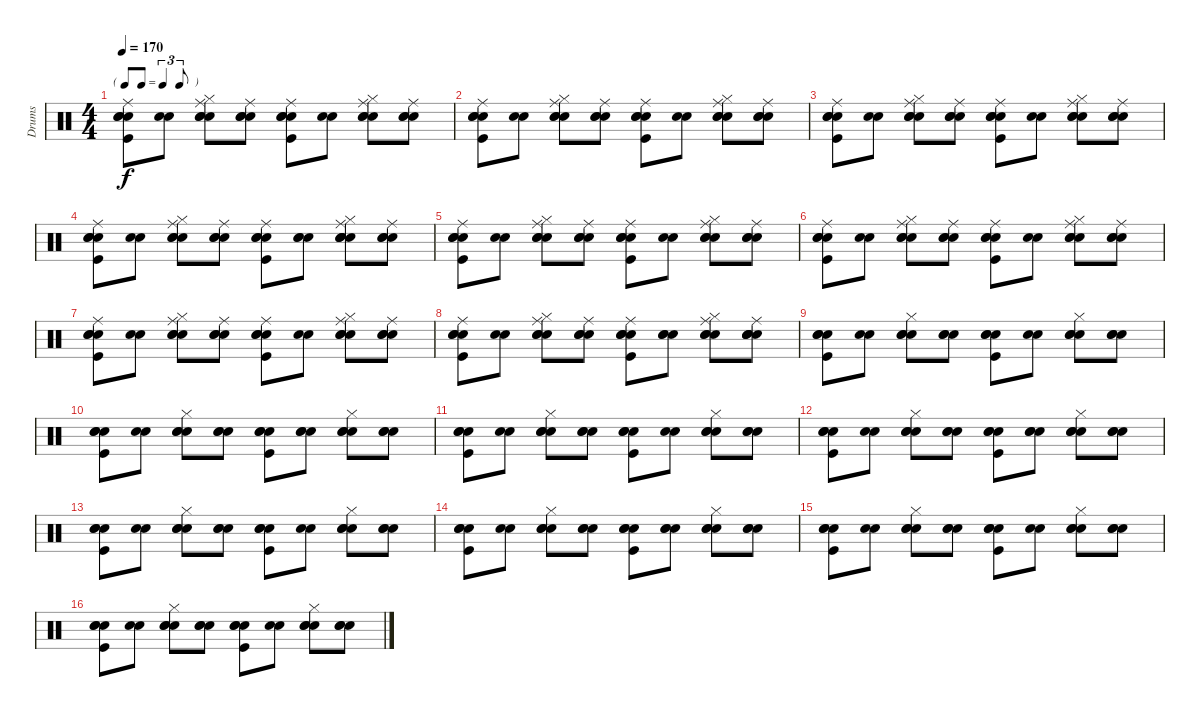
\track ("Drums" "Drums") {instrument percussion}
\staff {score}
\articulation defaults
\ts (4 4)
\tf triplet8th
\tempo 170
\clef neutral
\ks c
("Snare (hit)" "Kick (hit)" "Snare (hit) 2" "Electric Snare (hit)" "Ride (middle)").8{dy f} ("Snare (hit)" "Electric Snare (hit)").8 ("Snare (hit)" "Snare (hit) 2" "Hi-Hat (closed)" "Electric Snare (hit)" "Ride (middle)").8 ("Snare (hit)" "Snare (hit) 2" "Electric Snare (hit)" "Ride (middle)").8 ("Snare (hit)" "Kick (hit)" "Snare (hit) 2" "Electric Snare (hit)" "Ride (middle)").8 ("Snare (hit)" "Electric Snare (hit)").8 ("Snare (hit)" "Snare (hit) 2" "Hi-Hat (closed)" "Electric Snare (hit)" "Ride (middle)").8 ("Snare (hit)" "Snare (hit) 2" "Electric Snare (hit)" "Ride (middle)").8 |
("Snare (hit)" "Kick (hit)" "Snare (hit) 2" "Electric Snare (hit)" "Ride (middle)").8 ("Snare (hit)" "Electric Snare (hit)").8 ("Snare (hit)" "Snare (hit) 2" "Hi-Hat (closed)" "Electric Snare (hit)" "Ride (middle)").8 ("Snare (hit)" "Snare (hit) 2" "Electric Snare (hit)" "Ride (middle)").8 ("Snare (hit)" "Kick (hit)" "Snare (hit) 2" "Electric Snare (hit)" "Ride (middle)").8 ("Snare (hit)" "Electric Snare (hit)").8 ("Snare (hit)" "Snare (hit) 2" "Hi-Hat (closed)" "Electric Snare (hit)" "Ride (middle)").8 ("Snare (hit)" "Snare (hit) 2" "Electric Snare (hit)" "Ride (middle)").8 |
("Snare (hit)" "Kick (hit)" "Snare (hit) 2" "Electric Snare (hit)" "Ride (middle)").8 ("Snare (hit)" "Electric Snare (hit)").8 ("Snare (hit)" "Snare (hit) 2" "Hi-Hat (closed)" "Electric Snare (hit)" "Ride (middle)").8 ("Snare (hit)" "Snare (hit) 2" "Electric Snare (hit)" "Ride (middle)").8 ("Snare (hit)" "Kick (hit)" "Snare (hit) 2" "Electric Snare (hit)" "Ride (middle)").8 ("Snare (hit)" "Electric Snare (hit)").8 ("Snare (hit)" "Snare (hit) 2" "Hi-Hat (closed)" "Electric Snare (hit)" "Ride (middle)").8 ("Snare (hit)" "Snare (hit) 2" "Electric Snare (hit)" "Ride (middle)").8 |
("Snare (hit)" "Kick (hit)" "Snare (hit) 2" "Electric Snare (hit)" "Ride (middle)").8 ("Snare (hit)" "Electric Snare (hit)").8 ("Snare (hit)" "Snare (hit) 2" "Hi-Hat (closed)" "Electric Snare (hit)" "Ride (middle)").8 ("Snare (hit)" "Snare (hit) 2" "Electric Snare (hit)" "Ride (middle)").8 ("Snare (hit)" "Kick (hit)" "Snare (hit) 2" "Electric Snare (hit)" "Ride (middle)").8 ("Snare (hit)" "Electric Snare (hit)" "Hand Clap (hit)").8 ("Snare (hit)" "Snare (hit) 2" "Hi-Hat (closed)" "Electric Snare (hit)" "Ride (middle)" "Hand Clap (hit)").8 ("Snare (hit)" "Snare (hit) 2" "Electric Snare (hit)" "Ride (middle)").8 |
("Snare (hit)" "Kick (hit)" "Snare (hit) 2" "Electric Snare (hit)" "Ride (middle)").8 ("Snare (hit)" "Electric Snare (hit)").8 ("Snare (hit)" "Snare (hit) 2" "Hi-Hat (closed)" "Electric Snare (hit)" "Ride (middle)").8 ("Snare (hit)" "Snare (hit) 2" "Electric Snare (hit)" "Ride (middle)").8 ("Snare (hit)" "Kick (hit)" "Snare (hit) 2" "Electric Snare (hit)" "Ride (middle)").8 ("Snare (hit)" "Electric Snare (hit)").8 ("Snare (hit)" "Snare (hit) 2" "Hi-Hat (closed)" "Electric Snare (hit)" "Ride (middle)").8 ("Snare (hit)" "Snare (hit) 2" "Electric Snare (hit)" "Ride (middle)").8 |
("Snare (hit)" "Kick (hit)" "Snare (hit) 2" "Electric Snare (hit)" "Ride (middle)").8 ("Snare (hit)" "Electric Snare (hit)").8 ("Snare (hit)" "Snare (hit) 2" "Hi-Hat (closed)" "Electric Snare (hit)" "Ride (middle)").8 ("Snare (hit)" "Snare (hit) 2" "Electric Snare (hit)" "Ride (middle)").8 ("Snare (hit)" "Kick (hit)" "Snare (hit) 2" "Electric Snare (hit)" "Ride (middle)").8 ("Snare (hit)" "Electric Snare (hit)").8 ("Snare (hit)" "Snare (hit) 2" "Hi-Hat (closed)" "Electric Snare (hit)" "Ride (middle)").8 ("Snare (hit)" "Snare (hit) 2" "Electric Snare (hit)" "Ride (middle)").8 |
("Snare (hit)" "Kick (hit)" "Snare (hit) 2" "Electric Snare (hit)" "Ride (middle)").8 ("Snare (hit)" "Electric Snare (hit)").8 ("Snare (hit)" "Snare (hit) 2" "Hi-Hat (closed)" "Electric Snare (hit)" "Ride (middle)").8 ("Snare (hit)" "Snare (hit) 2" "Electric Snare (hit)" "Ride (middle)").8 ("Snare (hit)" "Kick (hit)" "Snare (hit) 2" "Electric Snare (hit)" "Ride (middle)").8 ("Snare (hit)" "Electric Snare (hit)").8 ("Snare (hit)" "Snare (hit) 2" "Hi-Hat (closed)" "Electric Snare (hit)" "Ride (middle)").8 ("Snare (hit)" "Snare (hit) 2" "Electric Snare (hit)" "Ride (middle)").8 |
("Snare (hit)" "Kick (hit)" "Snare (hit) 2" "Electric Snare (hit)" "Ride (middle)").8 ("Snare (hit)" "Electric Snare (hit)").8 ("Snare (hit)" "Snare (hit) 2" "Hi-Hat (closed)" "Electric Snare (hit)" "Ride (middle)").8 ("Snare (hit)" "Snare (hit) 2" "Electric Snare (hit)" "Ride (middle)").8 ("Snare (hit)" "Kick (hit)" "Snare (hit) 2" "Electric Snare (hit)" "Ride (middle)").8 ("Snare (hit)" "Electric Snare (hit)" "Hand Clap (hit)").8 ("Snare (hit)" "Snare (hit) 2" "Hi-Hat (closed)" "Electric Snare (hit)" "Ride (middle)").8 ("Snare (hit)" "Snare (hit) 2" "Electric Snare (hit)" "Ride (middle)" "Hand Clap (hit)").8 |
("Snare (hit)" "Kick (hit)" "Snare (hit) 2" "Electric Snare (hit)").8 ("Snare (hit)" "Electric Snare (hit)").8 ("Snare (hit)" "Snare (hit) 2" "Hi-Hat (closed)" "Electric Snare (hit)").8 ("Snare (hit)" "Snare (hit) 2" "Electric Snare (hit)").8 ("Snare (hit)" "Kick (hit)" "Snare (hit) 2" "Electric Snare (hit)").8 ("Snare (hit)" "Electric Snare (hit)").8 ("Snare (hit)" "Snare (hit) 2" "Hi-Hat (closed)" "Electric Snare (hit)").8 ("Snare (hit)" "Snare (hit) 2" "Electric Snare (hit)").8 |
("Snare (hit)" "Kick (hit)" "Snare (hit) 2" "Electric Snare (hit)").8 ("Snare (hit)" "Electric Snare (hit)").8 ("Snare (hit)" "Snare (hit) 2" "Hi-Hat (closed)" "Electric Snare (hit)").8 ("Snare (hit)" "Snare (hit) 2" "Electric Snare (hit)").8 ("Snare (hit)" "Kick (hit)" "Snare (hit) 2" "Electric Snare (hit)").8 ("Snare (hit)" "Snare (hit) 2" "Electric Snare (hit)").8 ("Snare (hit)" "Snare (hit) 2" "Hi-Hat (closed)" "Electric Snare (hit)").8 ("Snare (hit)" "Snare (hit) 2" "Electric Snare (hit)").8 |
("Snare (hit)" "Kick (hit)" "Snare (hit) 2" "Electric Snare (hit)").8 ("Snare (hit)" "Electric Snare (hit)").8 ("Snare (hit)" "Snare (hit) 2" "Hi-Hat (closed)" "Electric Snare (hit)").8 ("Snare (hit)" "Snare (hit) 2" "Electric Snare (hit)").8 ("Snare (hit)" "Kick (hit)" "Snare (hit) 2" "Electric Snare (hit)").8 ("Snare (hit)" "Electric Snare (hit)").8 ("Snare (hit)" "Snare (hit) 2" "Hi-Hat (closed)" "Electric Snare (hit)").8 ("Snare (hit)" "Snare (hit) 2" "Electric Snare (hit)").8 |
("Snare (hit)" "Kick (hit)" "Snare (hit) 2" "Electric Snare (hit)").8 ("Snare (hit)" "Electric Snare (hit)").8 ("Snare (hit)" "Snare (hit) 2" "Hi-Hat (closed)" "Electric Snare (hit)").8 ("Snare (hit)" "Snare (hit) 2" "Electric Snare (hit)").8 ("Snare (hit)" "Kick (hit)" "Snare (hit) 2" "Electric Snare (hit)").8 ("Snare (hit)" "Electric Snare (hit)" "Hand Clap (hit)").8 ("Snare (hit)" "Snare (hit) 2" "Hi-Hat (closed)" "Electric Snare (hit)").8 ("Snare (hit)" "Snare (hit) 2" "Electric Snare (hit)").8 |
("Snare (hit)" "Kick (hit)" "Snare (hit) 2" "Electric Snare (hit)").8 ("Snare (hit)" "Electric Snare (hit)").8 ("Snare (hit)" "Snare (hit) 2" "Hi-Hat (closed)" "Electric Snare (hit)").8 ("Snare (hit)" "Snare (hit) 2" "Electric Snare (hit)").8 ("Snare (hit)" "Kick (hit)" "Snare (hit) 2" "Electric Snare (hit)").8 ("Snare (hit)" "Electric Snare (hit)").8 ("Snare (hit)" "Snare (hit) 2" "Hi-Hat (closed)" "Electric Snare (hit)").8 ("Snare (hit)" "Snare (hit) 2" "Electric Snare (hit)").8 |
("Snare (hit)" "Kick (hit)" "Snare (hit) 2" "Electric Snare (hit)").8 ("Snare (hit)" "Electric Snare (hit)").8 ("Snare (hit)" "Snare (hit) 2" "Hi-Hat (closed)" "Electric Snare (hit)").8 ("Snare (hit)" "Snare (hit) 2" "Electric Snare (hit)").8 ("Snare (hit)" "Kick (hit)" "Snare (hit) 2" "Electric Snare (hit)").8 ("Snare (hit)" "Snare (hit) 2" "Electric Snare (hit)").8 ("Snare (hit)" "Snare (hit) 2" "Hi-Hat (closed)" "Electric Snare (hit)").8 ("Snare (hit)" "Snare (hit) 2" "Electric Snare (hit)").8 |
("Snare (hit)" "Kick (hit)" "Snare (hit) 2" "Electric Snare (hit)").8 ("Snare (hit)" "Electric Snare (hit)").8 ("Snare (hit)" "Snare (hit) 2" "Hi-Hat (closed)" "Electric Snare (hit)").8 ("Snare (hit)" "Snare (hit) 2" "Electric Snare (hit)").8 ("Snare (hit)" "Kick (hit)" "Snare (hit) 2" "Electric Snare (hit)").8 ("Snare (hit)" "Electric Snare (hit)").8 ("Snare (hit)" "Snare (hit) 2" "Hi-Hat (closed)" "Electric Snare (hit)").8 ("Snare (hit)" "Snare (hit) 2" "Electric Snare (hit)").8 |
("Snare (hit)" "Kick (hit)" "Snare (hit) 2" "Electric Snare (hit)").8 ("Snare (hit)" "Electric Snare (hit)").8 ("Snare (hit)" "Snare (hit) 2" "Hi-Hat (closed)" "Electric Snare (hit)").8 ("Snare (hit)" "Snare (hit) 2" "Electric Snare (hit)").8 ("Snare (hit)" "Kick (hit)" "Snare (hit) 2" "Electric Snare (hit)").8 ("Snare (hit)" "Electric Snare (hit)").8 ("Snare (hit)" "Snare (hit) 2" "Hi-Hat (closed)" "Electric Snare (hit)").8 ("Snare (hit)" "Snare (hit) 2" "Electric Snare (hit)").8
